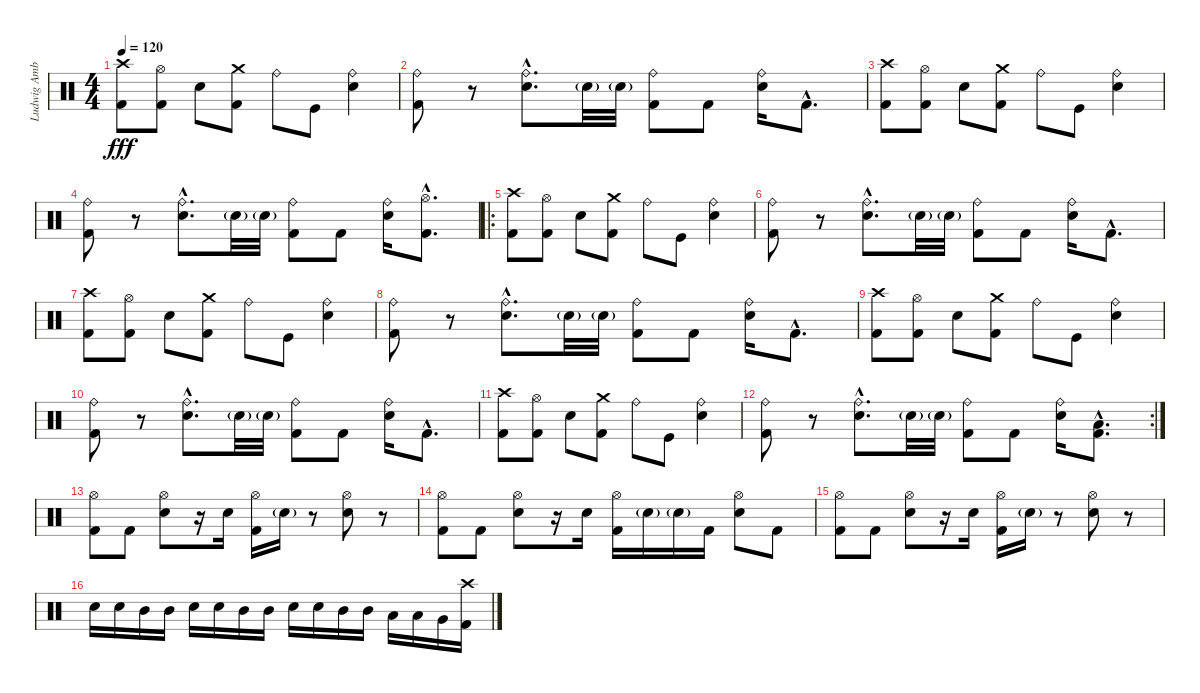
\track ("Ludwig Amber Vistalite / 2x Bass Pedal" "Ludwig Amb") {instrument percussion}
\staff {score}
\articulation defaults
\ts (4 4)
\tempo 120
\clef neutral
\ks c
("Crash high (hit)" "Kick (hit) 2").8{dy fff} ("Hi-Hat (open)" "Kick (hit) 2").8 "Electric Snare (hit)".8 ("Crash medium (hit)" "Kick (hit) 2").8 "Ride (bell)".8 "Kick (hit)".8 ("Ride (bell)" "Electric Snare (hit)").4 |
("Ride (bell)" "Kick (hit) 2").8 r.8 ("Ride (bell)"{hac} "Electric Snare (hit)"{hac}).8{d} "Electric Snare (hit)"{g}.32 "Electric Snare (hit)"{g}.32 ("Ride (bell)" "Kick (hit) 2").8 "Kick (hit) 2".8 ("Ride (bell)" "Electric Snare (hit)").16 "Kick (hit) 2"{hac}.8{d} |
("Crash high (hit)" "Kick (hit) 2").8 ("Hi-Hat (open)" "Kick (hit) 2").8 "Electric Snare (hit)".8 ("Crash medium (hit)" "Kick (hit) 2").8 "Ride (bell)".8 "Kick (hit)".8 ("Ride (bell)" "Electric Snare (hit)").4 |
("Ride (bell)" "Kick (hit) 2").8 r.8 ("Ride (bell)"{hac} "Electric Snare (hit)"{hac}).8{d} "Electric Snare (hit)"{g}.32 "Electric Snare (hit)"{g}.32 ("Ride (bell)" "Kick (hit) 2").8 "Kick (hit) 2".8 ("Ride (bell)" "Electric Snare (hit)").16 ("Hi-Hat (open)"{hac} "Kick (hit) 2"{hac}).8{d} |
\ro
("Crash high (hit)" "Kick (hit) 2").8 ("Hi-Hat (open)" "Kick (hit) 2").8 "Electric Snare (hit)".8 ("Crash medium (hit)" "Kick (hit) 2").8 "Ride (bell)".8 "Kick (hit)".8 ("Ride (bell)" "Electric Snare (hit)").4 |
("Ride (bell)" "Kick (hit) 2").8 r.8 ("Ride (bell)"{hac} "Electric Snare (hit)"{hac}).8{d} "Electric Snare (hit)"{g}.32 "Electric Snare (hit)"{g}.32 ("Ride (bell)" "Kick (hit) 2").8 "Kick (hit) 2".8 ("Ride (bell)" "Electric Snare (hit)").16 "Kick (hit) 2"{hac}.8{d} |
("Crash high (hit)" "Kick (hit) 2").8 ("Hi-Hat (open)" "Kick (hit) 2").8 "Electric Snare (hit)".8 ("Crash medium (hit)" "Kick (hit) 2").8 "Ride (bell)".8 "Kick (hit)".8 ("Ride (bell)" "Electric Snare (hit)").4 |
("Ride (bell)" "Kick (hit) 2").8 r.8 ("Ride (bell)"{hac} "Electric Snare (hit)"{hac}).8{d} "Electric Snare (hit)"{g}.32 "Electric Snare (hit)"{g}.32 ("Ride (bell)" "Kick (hit) 2").8 "Kick (hit) 2".8 ("Ride (bell)" "Electric Snare (hit)").16 "Kick (hit) 2"{hac}.8{d} |
("Crash high (hit)" "Kick (hit) 2").8 ("Hi-Hat (open)" "Kick (hit) 2").8 "Electric Snare (hit)".8 ("Crash medium (hit)" "Kick (hit) 2").8 "Ride (bell)".8 "Kick (hit)".8 ("Ride (bell)" "Electric Snare (hit)").4 |
("Ride (bell)" "Kick (hit) 2").8 r.8 ("Ride (bell)"{hac} "Electric Snare (hit)"{hac}).8{d} "Electric Snare (hit)"{g}.32 "Electric Snare (hit)"{g}.32 ("Ride (bell)" "Kick (hit) 2").8 "Kick (hit) 2".8 ("Ride (bell)" "Electric Snare (hit)").16 "Kick (hit) 2"{hac}.8{d} |
("Crash high (hit)" "Kick (hit) 2").8 ("Hi-Hat (open)" "Kick (hit) 2").8 "Electric Snare (hit)".8 ("Crash medium (hit)" "Kick (hit) 2").8 "Ride (bell)".8 "Kick (hit)".8 ("Ride (bell)" "Electric Snare (hit)").4 |
\rc 2
("Ride (bell)" "Kick (hit) 2").8 r.8 ("Ride (bell)"{hac} "Electric Snare (hit)"{hac}).8{d} "Electric Snare (hit)"{g}.32 "Electric Snare (hit)"{g}.32 ("Ride (bell)" "Kick (hit) 2").8 "Kick (hit) 2".8 ("Ride (bell)" "Electric Snare (hit)").16 ("Low Tom (hit)"{hac} "Kick (hit) 2"{hac}).8{d} |
("Hi-Hat (open)" "Kick (hit) 2").8 "Kick (hit) 2".8 ("Hi-Hat (open)" "Electric Snare (hit)").8 r.16 "Electric Snare (hit)".16 ("Hi-Hat (open)" "Kick (hit) 2").16 "Electric Snare (hit)"{g}.16 r.8 ("Hi-Hat (open)" "Electric Snare (hit)").8 r.8 |
("Hi-Hat (open)" "Kick (hit) 2").8 "Kick (hit) 2".8 ("Hi-Hat (open)" "Electric Snare (hit)").8 r.16 "Electric Snare (hit)".16 ("Hi-Hat (open)" "Kick (hit) 2").16 "Electric Snare (hit)"{g}.16 "Electric Snare (hit)"{g}.16 "Kick (hit) 2".16 ("Hi-Hat (open)" "Electric Snare (hit)").8 "Kick (hit) 2".8 |
("Hi-Hat (open)" "Kick (hit) 2").8 "Kick (hit) 2".8 ("Hi-Hat (open)" "Electric Snare (hit)").8 r.16 "Electric Snare (hit)".16 ("Hi-Hat (open)" "Kick (hit) 2").16 "Electric Snare (hit)"{g}.16 r.8 ("Hi-Hat (open)" "Electric Snare (hit)").8 r.8 |
"Electric Snare (hit)".16 "Electric Snare (hit)".16 "Mid Tom (hit)".16 "Mid Tom (hit)".16 "Electric Snare (hit)".16 "Electric Snare (hit)".16 "Mid Tom (hit)".16 "Mid Tom (hit)".16 "Electric Snare (hit)".16 "Electric Snare (hit)".16 "Mid Tom (hit)".16 "Mid Tom (hit)".16 "Low Tom (hit)".16 "Low Tom (hit)".16 "Very Low Tom (hit)".16 ("Crash high (hit)" "Kick (hit) 2").16
